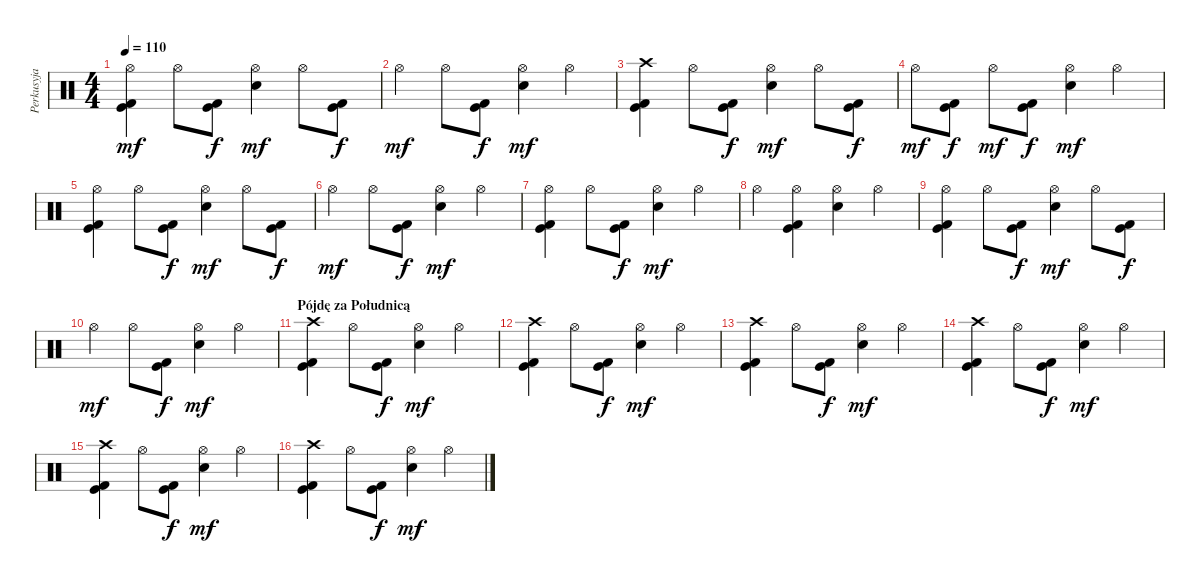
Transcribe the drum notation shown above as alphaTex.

\track ("Perkusyja" "Perkusyja") {instrument percussion}
\staff {score}
\articulation defaults
\ts (4 4)
\tempo 110
\clef neutral
\ks c
("Hi-Hat (open)" "Kick (hit) 2" "Kick (hit)").4{dy mf} "Hi-Hat (open)".8 ("Kick (hit) 2" "Kick (hit)").8{dy f} ("Hi-Hat (open)" "Snare (hit) 2").4{dy mf} "Hi-Hat (open)".8 ("Kick (hit) 2" "Kick (hit)").8{dy f} |
"Hi-Hat (open)".4{dy mf} "Hi-Hat (open)".8 ("Kick (hit) 2" "Kick (hit)").8{dy f} ("Hi-Hat (open)" "Snare (hit) 2").4{dy mf} "Hi-Hat (open)".4 |
("Crash high (hit)" "Kick (hit) 2" "Kick (hit)").4 "Hi-Hat (open)".8 ("Kick (hit) 2" "Kick (hit)").8{dy f} ("Hi-Hat (open)" "Snare (hit) 2").4{dy mf} "Hi-Hat (open)".8 ("Kick (hit) 2" "Kick (hit)").8{dy f} |
"Hi-Hat (open)".8{dy mf} ("Kick (hit) 2" "Kick (hit)").8{dy f} "Hi-Hat (open)".8{dy mf} ("Kick (hit) 2" "Kick (hit)").8{dy f} ("Hi-Hat (open)" "Snare (hit) 2").4{dy mf} "Hi-Hat (open)".4 |
("Hi-Hat (open)" "Kick (hit) 2" "Kick (hit)").4 "Hi-Hat (open)".8 ("Kick (hit) 2" "Kick (hit)").8{dy f} ("Hi-Hat (open)" "Snare (hit) 2").4{dy mf} "Hi-Hat (open)".8 ("Kick (hit) 2" "Kick (hit)").8{dy f} |
"Hi-Hat (open)".4{dy mf} "Hi-Hat (open)".8 ("Kick (hit) 2" "Kick (hit)").8{dy f} ("Hi-Hat (open)" "Snare (hit) 2").4{dy mf} "Hi-Hat (open)".4 |
("Hi-Hat (open)" "Kick (hit) 2" "Kick (hit)").4 "Hi-Hat (open)".8 ("Kick (hit) 2" "Kick (hit)").8{dy f} ("Hi-Hat (open)" "Snare (hit) 2").4{dy mf} "Hi-Hat (open)".4 |
"Hi-Hat (open)".4 ("Hi-Hat (open)" "Kick (hit) 2" "Kick (hit)").4 ("Hi-Hat (open)" "Snare (hit) 2").4 "Hi-Hat (open)".4 |
("Hi-Hat (open)" "Kick (hit) 2" "Kick (hit)").4 "Hi-Hat (open)".8 ("Kick (hit) 2" "Kick (hit)").8{dy f} ("Hi-Hat (open)" "Snare (hit) 2").4{dy mf} "Hi-Hat (open)".8 ("Kick (hit) 2" "Kick (hit)").8{dy f} |
"Hi-Hat (open)".4{dy mf} "Hi-Hat (open)".8 ("Kick (hit) 2" "Kick (hit)").8{dy f} ("Hi-Hat (open)" "Snare (hit) 2").4{dy mf} "Hi-Hat (open)".4 |
\section ("" "Pójdę za Południcą")
("Crash high (hit)" "Kick (hit) 2" "Kick (hit)").4 "Hi-Hat (open)".8 ("Kick (hit) 2" "Kick (hit)").8{dy f} ("Hi-Hat (open)" "Snare (hit) 2").4{dy mf} "Hi-Hat (open)".4 |
("Crash high (hit)" "Kick (hit) 2" "Kick (hit)").4 "Hi-Hat (open)".8 ("Kick (hit) 2" "Kick (hit)").8{dy f} ("Hi-Hat (open)" "Snare (hit) 2").4{dy mf} "Hi-Hat (open)".4 |
("Crash high (hit)" "Kick (hit) 2" "Kick (hit)").4 "Hi-Hat (open)".8 ("Kick (hit) 2" "Kick (hit)").8{dy f} ("Hi-Hat (open)" "Snare (hit) 2").4{dy mf} "Hi-Hat (open)".4 |
("Crash high (hit)" "Kick (hit) 2" "Kick (hit)").4 "Hi-Hat (open)".8 ("Kick (hit) 2" "Kick (hit)").8{dy f} ("Hi-Hat (open)" "Snare (hit) 2").4{dy mf} "Hi-Hat (open)".4 |
("Crash high (hit)" "Kick (hit) 2" "Kick (hit)").4 "Hi-Hat (open)".8 ("Kick (hit) 2" "Kick (hit)").8{dy f} ("Hi-Hat (open)" "Snare (hit) 2").4{dy mf} "Hi-Hat (open)".4 |
("Crash high (hit)" "Kick (hit) 2" "Kick (hit)").4 "Hi-Hat (open)".8 ("Kick (hit) 2" "Kick (hit)").8{dy f} ("Hi-Hat (open)" "Snare (hit) 2").4{dy mf} "Hi-Hat (open)".4
